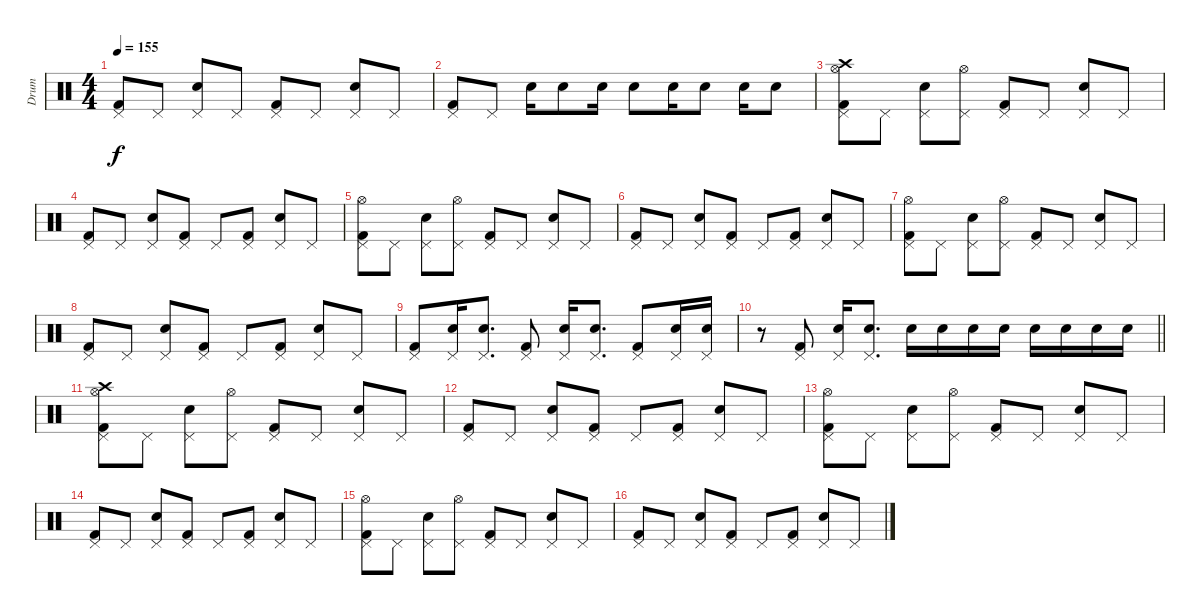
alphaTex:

\track ("Drum" "Drum") {instrument percussion}
\staff {score}
\articulation defaults
\ts (4 4)
\tempo 155
\clef neutral
\ks c
("Kick (hit) 2" "Pedal Hi-Hat (hit)").8{dy f} "Pedal Hi-Hat (hit)".8 ("Electric Snare (hit)" "Pedal Hi-Hat (hit)").8 "Pedal Hi-Hat (hit)".8 ("Kick (hit) 2" "Pedal Hi-Hat (hit)").8 "Pedal Hi-Hat (hit)".8 ("Electric Snare (hit)" "Pedal Hi-Hat (hit)").8 "Pedal Hi-Hat (hit)".8 |
("Kick (hit) 2" "Pedal Hi-Hat (hit)").8 "Pedal Hi-Hat (hit)".8 "Electric Snare (hit)".16 "Electric Snare (hit)".8 "Electric Snare (hit)".16 "Electric Snare (hit)".8 "Electric Snare (hit)".16 "Electric Snare (hit)".8 "Electric Snare (hit)".16 "Electric Snare (hit)".8 |
("Kick (hit) 2" "Pedal Hi-Hat (hit)" "Hi-Hat (open)" "Crash high (hit)").8 "Pedal Hi-Hat (hit)".8 ("Electric Snare (hit)" "Pedal Hi-Hat (hit)").8 ("Pedal Hi-Hat (hit)" "Hi-Hat (open)").8 ("Kick (hit) 2" "Pedal Hi-Hat (hit)").8 "Pedal Hi-Hat (hit)".8 ("Electric Snare (hit)" "Pedal Hi-Hat (hit)").8 "Pedal Hi-Hat (hit)".8 |
("Kick (hit) 2" "Pedal Hi-Hat (hit)").8 "Pedal Hi-Hat (hit)".8 ("Electric Snare (hit)" "Pedal Hi-Hat (hit)").8 ("Kick (hit) 2" "Pedal Hi-Hat (hit)").8 "Pedal Hi-Hat (hit)".8 ("Kick (hit) 2" "Pedal Hi-Hat (hit)").8 ("Electric Snare (hit)" "Pedal Hi-Hat (hit)").8 "Pedal Hi-Hat (hit)".8 |
("Kick (hit) 2" "Pedal Hi-Hat (hit)" "Hi-Hat (open)").8 "Pedal Hi-Hat (hit)".8 ("Electric Snare (hit)" "Pedal Hi-Hat (hit)").8 ("Pedal Hi-Hat (hit)" "Hi-Hat (open)").8 ("Kick (hit) 2" "Pedal Hi-Hat (hit)").8 "Pedal Hi-Hat (hit)".8 ("Electric Snare (hit)" "Pedal Hi-Hat (hit)").8 "Pedal Hi-Hat (hit)".8 |
("Kick (hit) 2" "Pedal Hi-Hat (hit)").8 "Pedal Hi-Hat (hit)".8 ("Electric Snare (hit)" "Pedal Hi-Hat (hit)").8 ("Kick (hit) 2" "Pedal Hi-Hat (hit)").8 "Pedal Hi-Hat (hit)".8 ("Kick (hit) 2" "Pedal Hi-Hat (hit)").8 ("Electric Snare (hit)" "Pedal Hi-Hat (hit)").8 "Pedal Hi-Hat (hit)".8 |
("Kick (hit) 2" "Pedal Hi-Hat (hit)" "Hi-Hat (open)").8 "Pedal Hi-Hat (hit)".8 ("Electric Snare (hit)" "Pedal Hi-Hat (hit)").8 ("Pedal Hi-Hat (hit)" "Hi-Hat (open)").8 ("Kick (hit) 2" "Pedal Hi-Hat (hit)").8 "Pedal Hi-Hat (hit)".8 ("Electric Snare (hit)" "Pedal Hi-Hat (hit)").8 "Pedal Hi-Hat (hit)".8 |
("Kick (hit) 2" "Pedal Hi-Hat (hit)").8 "Pedal Hi-Hat (hit)".8 ("Electric Snare (hit)" "Pedal Hi-Hat (hit)").8 ("Kick (hit) 2" "Pedal Hi-Hat (hit)").8 "Pedal Hi-Hat (hit)".8 ("Kick (hit) 2" "Pedal Hi-Hat (hit)").8 ("Electric Snare (hit)" "Pedal Hi-Hat (hit)").8 "Pedal Hi-Hat (hit)".8 |
("Kick (hit) 2" "Pedal Hi-Hat (hit)").8 ("Electric Snare (hit)" "Pedal Hi-Hat (hit)").16 ("Electric Snare (hit)" "Pedal Hi-Hat (hit)").8{d} ("Kick (hit) 2" "Pedal Hi-Hat (hit)").8 ("Electric Snare (hit)" "Pedal Hi-Hat (hit)").16 ("Electric Snare (hit)" "Pedal Hi-Hat (hit)").8{d} ("Kick (hit) 2" "Pedal Hi-Hat (hit)").8 ("Electric Snare (hit)" "Pedal Hi-Hat (hit)").16 ("Electric Snare (hit)" "Pedal Hi-Hat (hit)").16 |
\barLineRight lightlight
r.8 ("Kick (hit) 2" "Pedal Hi-Hat (hit)").8 ("Electric Snare (hit)" "Pedal Hi-Hat (hit)").16 ("Electric Snare (hit)" "Pedal Hi-Hat (hit)").8{d} "Electric Snare (hit)".16 "Electric Snare (hit)".16 "Electric Snare (hit)".16 "Electric Snare (hit)".16 "Electric Snare (hit)".16 "Electric Snare (hit)".16 "Electric Snare (hit)".16 "Electric Snare (hit)".16 |
("Kick (hit) 2" "Pedal Hi-Hat (hit)" "Hi-Hat (open)" "Crash high (hit)").8 "Pedal Hi-Hat (hit)".8 ("Electric Snare (hit)" "Pedal Hi-Hat (hit)").8 ("Pedal Hi-Hat (hit)" "Hi-Hat (open)").8 ("Kick (hit) 2" "Pedal Hi-Hat (hit)").8 "Pedal Hi-Hat (hit)".8 ("Electric Snare (hit)" "Pedal Hi-Hat (hit)").8 "Pedal Hi-Hat (hit)".8 |
("Kick (hit) 2" "Pedal Hi-Hat (hit)").8 "Pedal Hi-Hat (hit)".8 ("Electric Snare (hit)" "Pedal Hi-Hat (hit)").8 ("Kick (hit) 2" "Pedal Hi-Hat (hit)").8 "Pedal Hi-Hat (hit)".8 ("Kick (hit) 2" "Pedal Hi-Hat (hit)").8 ("Electric Snare (hit)" "Pedal Hi-Hat (hit)").8 "Pedal Hi-Hat (hit)".8 |
("Kick (hit) 2" "Pedal Hi-Hat (hit)" "Hi-Hat (open)").8 "Pedal Hi-Hat (hit)".8 ("Electric Snare (hit)" "Pedal Hi-Hat (hit)").8 ("Pedal Hi-Hat (hit)" "Hi-Hat (open)").8 ("Kick (hit) 2" "Pedal Hi-Hat (hit)").8 "Pedal Hi-Hat (hit)".8 ("Electric Snare (hit)" "Pedal Hi-Hat (hit)").8 "Pedal Hi-Hat (hit)".8 |
("Kick (hit) 2" "Pedal Hi-Hat (hit)").8 "Pedal Hi-Hat (hit)".8 ("Electric Snare (hit)" "Pedal Hi-Hat (hit)").8 ("Kick (hit) 2" "Pedal Hi-Hat (hit)").8 "Pedal Hi-Hat (hit)".8 ("Kick (hit) 2" "Pedal Hi-Hat (hit)").8 ("Electric Snare (hit)" "Pedal Hi-Hat (hit)").8 "Pedal Hi-Hat (hit)".8 |
("Kick (hit) 2" "Pedal Hi-Hat (hit)" "Hi-Hat (open)").8 "Pedal Hi-Hat (hit)".8 ("Electric Snare (hit)" "Pedal Hi-Hat (hit)").8 ("Pedal Hi-Hat (hit)" "Hi-Hat (open)").8 ("Kick (hit) 2" "Pedal Hi-Hat (hit)").8 "Pedal Hi-Hat (hit)".8 ("Electric Snare (hit)" "Pedal Hi-Hat (hit)").8 "Pedal Hi-Hat (hit)".8 |
("Kick (hit) 2" "Pedal Hi-Hat (hit)").8 "Pedal Hi-Hat (hit)".8 ("Electric Snare (hit)" "Pedal Hi-Hat (hit)").8 ("Kick (hit) 2" "Pedal Hi-Hat (hit)").8 "Pedal Hi-Hat (hit)".8 ("Kick (hit) 2" "Pedal Hi-Hat (hit)").8 ("Electric Snare (hit)" "Pedal Hi-Hat (hit)").8 "Pedal Hi-Hat (hit)".8
